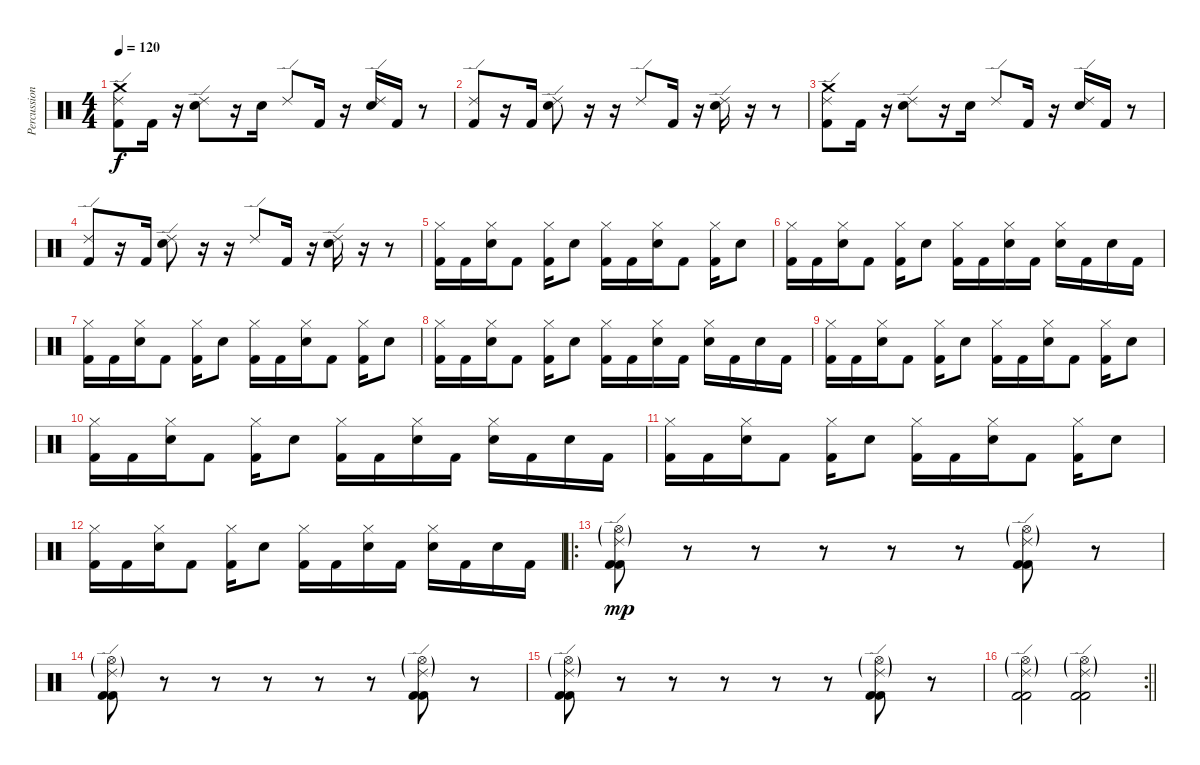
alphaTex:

\track ("Percussions" "Percussion") {instrument percussion}
\staff {score}
\articulation defaults
\ts (4 4)
\tempo 120
\clef neutral
\ks c
("Crash medium (hit)" "Ride (edge) 2" "Kick (hit) 2").8{dy f} "Kick (hit) 2".16 r.16 ("Ride (edge) 2" "Electric Snare (hit)").8 r.16 "Electric Snare (hit)".16 "Ride (edge) 2".8 "Kick (hit) 2".16 r.16 ("Ride (edge) 2" "Electric Snare (hit)").16 "Kick (hit) 2".16 r.8 |
("Ride (edge) 2" "Kick (hit) 2").8 r.16 "Kick (hit) 2".16 ("Ride (edge) 2" "Electric Snare (hit)").8 r.16 r.16 "Ride (edge) 2".8 "Kick (hit) 2".16 r.16 ("Ride (edge) 2" "Electric Snare (hit)").16 r.16 r.8 |
("Crash medium (hit)" "Ride (edge) 2" "Kick (hit) 2").8 "Kick (hit) 2".16 r.16 ("Ride (edge) 2" "Electric Snare (hit)").8 r.16 "Electric Snare (hit)".16 "Ride (edge) 2".8 "Kick (hit) 2".16 r.16 ("Ride (edge) 2" "Electric Snare (hit)").16 "Kick (hit) 2".16 r.8 |
("Ride (edge) 2" "Kick (hit) 2").8 r.16 "Kick (hit) 2".16 ("Ride (edge) 2" "Electric Snare (hit)").8 r.16 r.16 "Ride (edge) 2".8 "Kick (hit) 2".16 r.16 ("Ride (edge) 2" "Electric Snare (hit)").16 r.16 r.8 |
("Hi-Hat (closed)" "Kick (hit) 2").16 "Kick (hit) 2".16 ("Hi-Hat (closed)" "Electric Snare (hit)").16 "Kick (hit) 2".8 ("Hi-Hat (closed)" "Kick (hit) 2").16 "Electric Snare (hit)".8 ("Hi-Hat (closed)" "Kick (hit) 2").16 "Kick (hit) 2".16 ("Hi-Hat (closed)" "Electric Snare (hit)").16 "Kick (hit) 2".8 ("Hi-Hat (closed)" "Kick (hit) 2").16 "Electric Snare (hit)".8 |
("Hi-Hat (closed)" "Kick (hit) 2").16 "Kick (hit) 2".16 ("Hi-Hat (closed)" "Electric Snare (hit)").16 "Kick (hit) 2".8 ("Hi-Hat (closed)" "Kick (hit) 2").16 "Electric Snare (hit)".8 ("Hi-Hat (closed)" "Kick (hit) 2").16 "Kick (hit) 2".16 ("Hi-Hat (closed)" "Electric Snare (hit)").16 "Kick (hit) 2".16 ("Hi-Hat (closed)" "Electric Snare (hit)").16 "Kick (hit) 2".16 "Electric Snare (hit)".16 "Kick (hit) 2".16 |
("Hi-Hat (closed)" "Kick (hit) 2").16 "Kick (hit) 2".16 ("Hi-Hat (closed)" "Electric Snare (hit)").16 "Kick (hit) 2".8 ("Hi-Hat (closed)" "Kick (hit) 2").16 "Electric Snare (hit)".8 ("Hi-Hat (closed)" "Kick (hit) 2").16 "Kick (hit) 2".16 ("Hi-Hat (closed)" "Electric Snare (hit)").16 "Kick (hit) 2".8 ("Hi-Hat (closed)" "Kick (hit) 2").16 "Electric Snare (hit)".8 |
("Hi-Hat (closed)" "Kick (hit) 2").16 "Kick (hit) 2".16 ("Hi-Hat (closed)" "Electric Snare (hit)").16 "Kick (hit) 2".8 ("Hi-Hat (closed)" "Kick (hit) 2").16 "Electric Snare (hit)".8 ("Hi-Hat (closed)" "Kick (hit) 2").16 "Kick (hit) 2".16 ("Hi-Hat (closed)" "Electric Snare (hit)").16 "Kick (hit) 2".16 ("Hi-Hat (closed)" "Electric Snare (hit)").16 "Kick (hit) 2".16 "Electric Snare (hit)".16 "Kick (hit) 2".16 |
("Hi-Hat (closed)" "Kick (hit) 2").16 "Kick (hit) 2".16 ("Hi-Hat (closed)" "Electric Snare (hit)").16 "Kick (hit) 2".8 ("Hi-Hat (closed)" "Kick (hit) 2").16 "Electric Snare (hit)".8 ("Hi-Hat (closed)" "Kick (hit) 2").16 "Kick (hit) 2".16 ("Hi-Hat (closed)" "Electric Snare (hit)").16 "Kick (hit) 2".8 ("Hi-Hat (closed)" "Kick (hit) 2").16 "Electric Snare (hit)".8 |
("Hi-Hat (closed)" "Kick (hit) 2").16 "Kick (hit) 2".16 ("Hi-Hat (closed)" "Electric Snare (hit)").16 "Kick (hit) 2".8 ("Hi-Hat (closed)" "Kick (hit) 2").16 "Electric Snare (hit)".8 ("Hi-Hat (closed)" "Kick (hit) 2").16 "Kick (hit) 2".16 ("Hi-Hat (closed)" "Electric Snare (hit)").16 "Kick (hit) 2".16 ("Hi-Hat (closed)" "Electric Snare (hit)").16 "Kick (hit) 2".16 "Electric Snare (hit)".16 "Kick (hit) 2".16 |
("Hi-Hat (closed)" "Kick (hit) 2").16 "Kick (hit) 2".16 ("Hi-Hat (closed)" "Electric Snare (hit)").16 "Kick (hit) 2".8 ("Hi-Hat (closed)" "Kick (hit) 2").16 "Electric Snare (hit)".8 ("Hi-Hat (closed)" "Kick (hit) 2").16 "Kick (hit) 2".16 ("Hi-Hat (closed)" "Electric Snare (hit)").16 "Kick (hit) 2".8 ("Hi-Hat (closed)" "Kick (hit) 2").16 "Electric Snare (hit)".8 |
("Hi-Hat (closed)" "Kick (hit) 2").16 "Kick (hit) 2".16 ("Hi-Hat (closed)" "Electric Snare (hit)").16 "Kick (hit) 2".8 ("Hi-Hat (closed)" "Kick (hit) 2").16 "Electric Snare (hit)".8 ("Hi-Hat (closed)" "Kick (hit) 2").16 "Kick (hit) 2".16 ("Hi-Hat (closed)" "Electric Snare (hit)").16 "Kick (hit) 2".16 ("Hi-Hat (closed)" "Electric Snare (hit)").16 "Kick (hit) 2".16 "Electric Snare (hit)".16 "Kick (hit) 2".16 |
\ro
("Hi-Hat (open)"{g} "Ride (edge) 2"{g} "Kick (hit) 2" "Kick (hit) 2").8{dy mp} r.8 r.8 r.8 r.8 r.8 ("Hi-Hat (open)"{g} "Ride (edge) 2"{g} "Kick (hit) 2" "Kick (hit) 2").8 r.8 |
("Hi-Hat (open)"{g} "Ride (edge) 2"{g} "Kick (hit) 2" "Kick (hit) 2").8 r.8 r.8 r.8 r.8 r.8 ("Hi-Hat (open)"{g} "Ride (edge) 2"{g} "Kick (hit) 2" "Kick (hit) 2").8 r.8 |
("Hi-Hat (open)"{g} "Ride (edge) 2"{g} "Kick (hit) 2" "Kick (hit) 2").8 r.8 r.8 r.8 r.8 r.8 ("Hi-Hat (open)"{g} "Ride (edge) 2"{g} "Kick (hit) 2" "Kick (hit) 2").8 r.8 |
\rc 2
\barLineRight lightlight
("Hi-Hat (open)"{g} "Ride (edge) 2"{g} "Kick (hit) 2" "Kick (hit) 2").2 ("Hi-Hat (open)"{g} "Ride (edge) 2"{g} "Kick (hit) 2" "Kick (hit) 2").2
